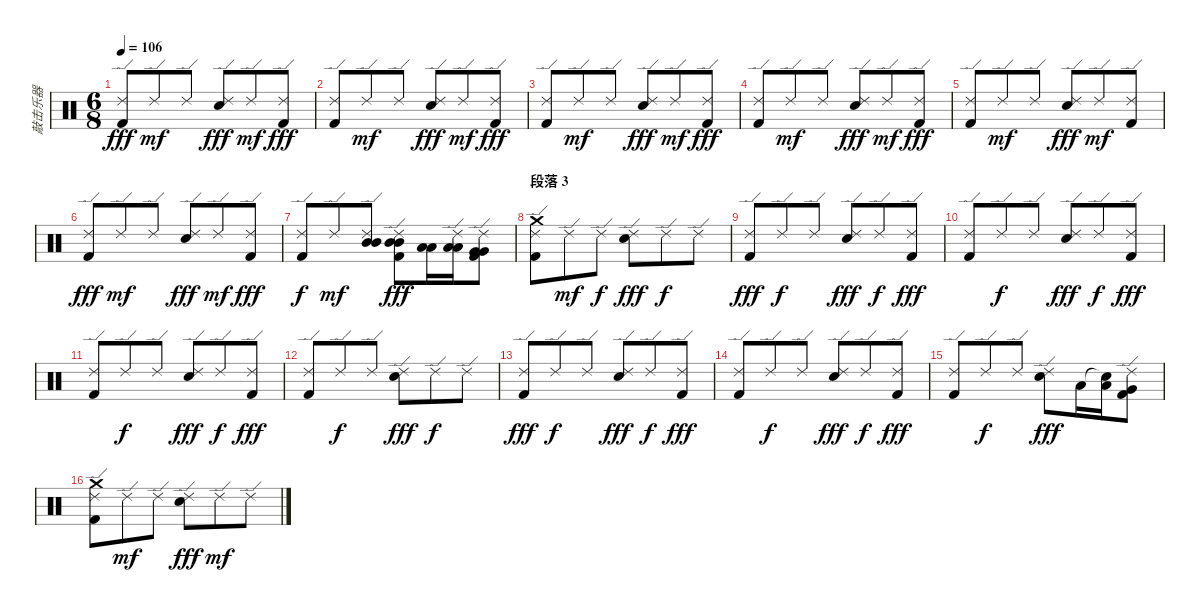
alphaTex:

\track ("敲击乐器" "敲击乐器") {instrument percussion}
\staff {score}
\articulation defaults
\ts (6 8)
\tempo 106
\clef neutral
\ks c
("Ride (edge) 2" "Kick (hit) 2").8{dy fff} "Ride (edge) 2".8{dy mf} "Ride (edge) 2".8 ("Ride (edge) 2" "Snare (hit) 2").8{dy fff} "Ride (edge) 2".8{dy mf} ("Ride (edge) 2" "Kick (hit) 2").8{dy fff} |
("Ride (edge) 2" "Kick (hit) 2").8 "Ride (edge) 2".8{dy mf} "Ride (edge) 2".8 ("Ride (edge) 2" "Snare (hit) 2").8{dy fff} "Ride (edge) 2".8{dy mf} ("Ride (edge) 2" "Kick (hit) 2").8{dy fff} |
("Ride (edge) 2" "Kick (hit) 2").8 "Ride (edge) 2".8{dy mf} "Ride (edge) 2".8 ("Ride (edge) 2" "Snare (hit) 2").8{dy fff} "Ride (edge) 2".8{dy mf} ("Ride (edge) 2" "Kick (hit) 2").8{dy fff} |
("Ride (edge) 2" "Kick (hit) 2").8 "Ride (edge) 2".8{dy mf} "Ride (edge) 2".8 ("Ride (edge) 2" "Snare (hit) 2").8{dy fff} "Ride (edge) 2".8{dy mf} ("Ride (edge) 2" "Kick (hit) 2").8{dy fff} |
("Ride (edge) 2" "Kick (hit) 2").8 "Ride (edge) 2".8{dy mf} "Ride (edge) 2".8 ("Ride (edge) 2" "Snare (hit) 2").8{dy fff} "Ride (edge) 2".8{dy mf} ("Ride (edge) 2" "Kick (hit) 2").8 |
("Ride (edge) 2" "Kick (hit) 2").8{dy fff} "Ride (edge) 2".8{dy mf} "Ride (edge) 2".8 ("Ride (edge) 2" "Snare (hit) 2").8{dy fff} "Ride (edge) 2".8{dy mf} ("Ride (edge) 2" "Kick (hit) 2").8{dy fff} |
("Ride (edge) 2" "Kick (hit) 2").8{dy f} "Ride (edge) 2".8{dy mf} ("Ride (edge) 2" "Mid Tom (hit)" "Mid Tom (hit)").8 ("Ride (edge) 2" "Mid Tom (hit)" "Mid Tom (hit)" "Kick (hit) 2").8{dy fff} ("Low Tom (hit)" "Low Tom (hit)").16 ("Ride (edge) 2" "Low Tom (hit)" "Low Tom (hit)").16 ("Ride (edge) 2" "Very Low Tom (hit)" "Very Low Tom (hit)" "Kick (hit) 2").8 |
\section ("" "段落 3")
("Ride (edge) 2" "Crash medium (hit)" "Kick (hit) 2").8 "Ride (edge) 2".8{dy mf} "Ride (edge) 2".8{dy f} ("Ride (edge) 2" "Snare (hit) 2").8{dy fff} "Ride (edge) 2".8{dy f} "Ride (edge) 2".8 |
("Ride (edge) 2" "Kick (hit) 2").8{dy fff} "Ride (edge) 2".8{dy f} "Ride (edge) 2".8 ("Ride (edge) 2" "Snare (hit) 2").8{dy fff} "Ride (edge) 2".8{dy f} ("Ride (edge) 2" "Kick (hit) 2").8{dy fff} |
("Ride (edge) 2" "Kick (hit) 2").8 "Ride (edge) 2".8{dy f} "Ride (edge) 2".8 ("Ride (edge) 2" "Snare (hit) 2").8{dy fff} "Ride (edge) 2".8{dy f} ("Ride (edge) 2" "Kick (hit) 2").8{dy fff} |
("Ride (edge) 2" "Kick (hit) 2").8 "Ride (edge) 2".8{dy f} "Ride (edge) 2".8 ("Ride (edge) 2" "Snare (hit) 2").8{dy fff} "Ride (edge) 2".8{dy f} ("Ride (edge) 2" "Kick (hit) 2").8{dy fff} |
("Ride (edge) 2" "Kick (hit) 2").8 "Ride (edge) 2".8{dy f} "Ride (edge) 2".8 ("Ride (edge) 2" "Snare (hit) 2").8{dy fff} "Ride (edge) 2".8{dy f} "Ride (edge) 2".8 |
("Ride (edge) 2" "Kick (hit) 2").8{dy fff} "Ride (edge) 2".8{dy f} "Ride (edge) 2".8 ("Ride (edge) 2" "Snare (hit) 2").8{dy fff} "Ride (edge) 2".8{dy f} ("Ride (edge) 2" "Kick (hit) 2").8{dy fff} |
("Ride (edge) 2" "Kick (hit) 2").8 "Ride (edge) 2".8{dy f} "Ride (edge) 2".8 ("Ride (edge) 2" "Snare (hit) 2").8{dy fff} "Ride (edge) 2".8{dy f} ("Ride (edge) 2" "Kick (hit) 2").8{dy fff} |
("Ride (edge) 2" "Kick (hit) 2").8 "Ride (edge) 2".8{dy f} "Ride (edge) 2".8 ("Ride (edge) 2" "Snare (hit) 2").8{dy fff} "Low Tom (hit)".16 ("Snare (hit)"{t} "Low Tom (hit)").16 ("Ride (edge) 2" "Very Low Tom (hit)" "Kick (hit) 2").8 |
("Ride (edge) 2" "Crash medium (hit)" "Kick (hit) 2").8 "Ride (edge) 2".8{dy mf} "Ride (edge) 2".8 ("Ride (edge) 2" "Snare (hit) 2").8{dy fff} "Ride (edge) 2".8{dy mf} "Ride (edge) 2".8
